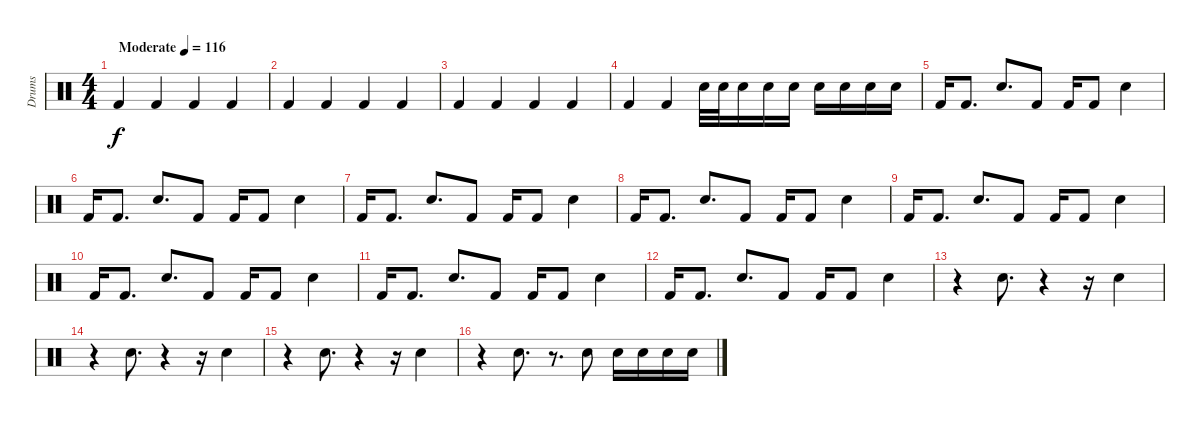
\track ("Drums" "Drums") {instrument percussion}
\staff {score}
\articulation defaults
\ts (4 4)
\tempo (116 "Moderate")
\clef neutral
\ks c "Kick (hit) 2".4{dy f} "Kick (hit) 2".4 "Kick (hit) 2".4 "Kick (hit) 2".4
|
"Kick (hit) 2".4 "Kick (hit) 2".4 "Kick (hit) 2".4 "Kick (hit) 2".4 |
"Kick (hit) 2".4 "Kick (hit) 2".4 "Kick (hit) 2".4 "Kick (hit) 2".4 |
"Kick (hit) 2".4 "Kick (hit) 2".4 "Snare (hit) 2".32 "Snare (hit) 2".32 "Snare (hit) 2".16 "Snare (hit) 2".16 "Snare (hit) 2".16 "Snare (hit) 2".16 "Snare (hit) 2".16 "Snare (hit) 2".16 "Snare (hit) 2".16 |
"Kick (hit) 2".16 "Kick (hit) 2".8{d} "Snare (hit) 2".8{d} "Kick (hit) 2".8 "Kick (hit) 2".16 "Kick (hit) 2".8 "Snare (hit) 2".4 |
"Kick (hit) 2".16 "Kick (hit) 2".8{d} "Snare (hit) 2".8{d} "Kick (hit) 2".8 "Kick (hit) 2".16 "Kick (hit) 2".8 "Snare (hit) 2".4 |
"Kick (hit) 2".16 "Kick (hit) 2".8{d} "Snare (hit) 2".8{d} "Kick (hit) 2".8 "Kick (hit) 2".16 "Kick (hit) 2".8 "Snare (hit) 2".4 |
"Kick (hit) 2".16 "Kick (hit) 2".8{d} "Snare (hit) 2".8{d} "Kick (hit) 2".8 "Kick (hit) 2".16 "Kick (hit) 2".8 "Snare (hit) 2".4 |
"Kick (hit) 2".16 "Kick (hit) 2".8{d} "Snare (hit) 2".8{d} "Kick (hit) 2".8 "Kick (hit) 2".16 "Kick (hit) 2".8 "Snare (hit) 2".4 |
"Kick (hit) 2".16 "Kick (hit) 2".8{d} "Snare (hit) 2".8{d} "Kick (hit) 2".8 "Kick (hit) 2".16 "Kick (hit) 2".8 "Snare (hit) 2".4 |
"Kick (hit) 2".16 "Kick (hit) 2".8{d} "Snare (hit) 2".8{d} "Kick (hit) 2".8 "Kick (hit) 2".16 "Kick (hit) 2".8 "Snare (hit) 2".4 |
"Kick (hit) 2".16 "Kick (hit) 2".8{d} "Snare (hit) 2".8{d} "Kick (hit) 2".8 "Kick (hit) 2".16 "Kick (hit) 2".8 "Snare (hit) 2".4 |
r.4 "Snare (hit) 2".8{d} r.4 r.16 "Snare (hit) 2".4 |
r.4 "Snare (hit) 2".8{d} r.4 r.16 "Snare (hit) 2".4 |
r.4 "Snare (hit) 2".8{d} r.4 r.16 "Snare (hit) 2".4 |
r.4 "Snare (hit) 2".8{d} r.8{d} "Snare (hit) 2".8 "Snare (hit) 2".16 "Snare (hit) 2".16 "Snare (hit) 2".16 "Snare (hit) 2".16
